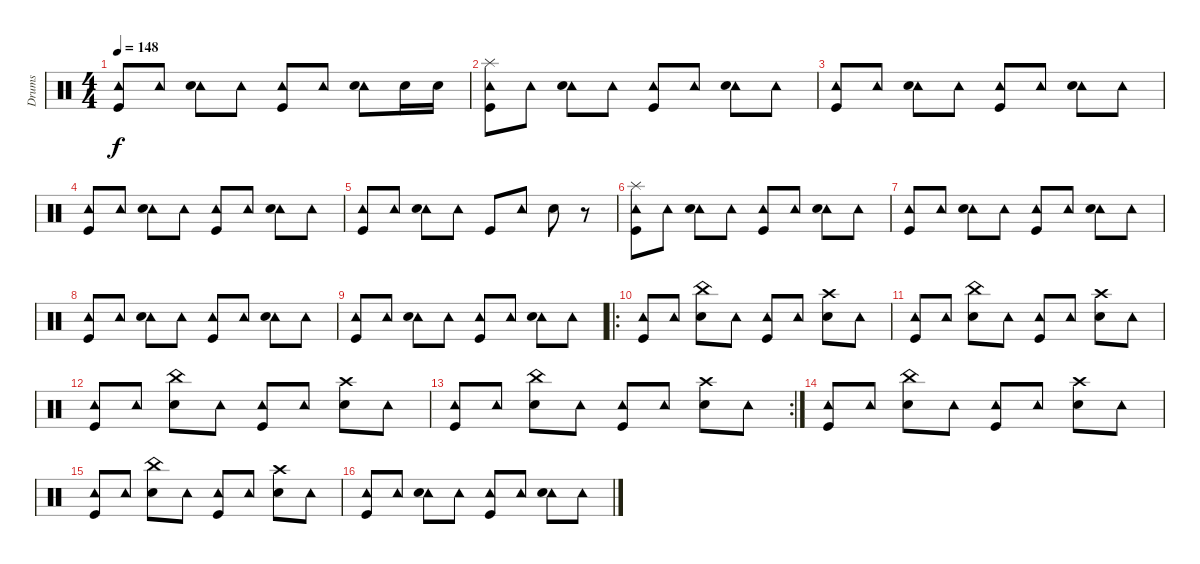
\track ("Drums" "Drums") {instrument percussion}
\staff {score}
\articulation defaults
\ts (4 4)
\tempo 148
\clef neutral
\ks c
("Tambourine (hit)" "Kick (hit)").8{dy f} "Tambourine (hit)".8 ("Tambourine (hit)" "Snare (hit) 2").8 "Tambourine (hit)".8 ("Tambourine (hit)" "Kick (hit)").8 "Tambourine (hit)".8 ("Tambourine (hit)" "Snare (hit) 2").8 "Snare (hit) 2".16 "Snare (hit) 2".16 |
("Tambourine (hit)" "Kick (hit)" "Splash (hit)").8 "Tambourine (hit)".8 ("Tambourine (hit)" "Snare (hit) 2").8 "Tambourine (hit)".8 ("Tambourine (hit)" "Kick (hit)").8 "Tambourine (hit)".8 ("Tambourine (hit)" "Snare (hit) 2").8 "Tambourine (hit)".8 |
("Tambourine (hit)" "Kick (hit)").8 "Tambourine (hit)".8 ("Tambourine (hit)" "Snare (hit) 2").8 "Tambourine (hit)".8 ("Tambourine (hit)" "Kick (hit)").8 "Tambourine (hit)".8 ("Tambourine (hit)" "Snare (hit) 2").8 "Tambourine (hit)".8 |
("Tambourine (hit)" "Kick (hit)").8 "Tambourine (hit)".8 ("Tambourine (hit)" "Snare (hit) 2").8 "Tambourine (hit)".8 ("Tambourine (hit)" "Kick (hit)").8 "Tambourine (hit)".8 ("Tambourine (hit)" "Snare (hit) 2").8 "Tambourine (hit)".8 |
("Tambourine (hit)" "Kick (hit)").8 "Tambourine (hit)".8 ("Tambourine (hit)" "Snare (hit) 2").8 "Tambourine (hit)".8 "Kick (hit)".8 "Tambourine (hit)".8 "Snare (hit) 2".8 r.8 |
("Tambourine (hit)" "Kick (hit)" "Splash (hit)").8 "Tambourine (hit)".8 ("Tambourine (hit)" "Snare (hit) 2").8 "Tambourine (hit)".8 ("Tambourine (hit)" "Kick (hit)").8 "Tambourine (hit)".8 ("Tambourine (hit)" "Snare (hit) 2").8 "Tambourine (hit)".8 |
("Tambourine (hit)" "Kick (hit)").8 "Tambourine (hit)".8 ("Tambourine (hit)" "Snare (hit) 2").8 "Tambourine (hit)".8 ("Tambourine (hit)" "Kick (hit)").8 "Tambourine (hit)".8 ("Tambourine (hit)" "Snare (hit) 2").8 "Tambourine (hit)".8 |
("Tambourine (hit)" "Kick (hit)").8 "Tambourine (hit)".8 ("Tambourine (hit)" "Snare (hit) 2").8 "Tambourine (hit)".8 ("Tambourine (hit)" "Kick (hit)").8 "Tambourine (hit)".8 ("Tambourine (hit)" "Snare (hit) 2").8 "Tambourine (hit)".8 |
("Tambourine (hit)" "Kick (hit)").8 "Tambourine (hit)".8 ("Tambourine (hit)" "Snare (hit) 2").8 "Tambourine (hit)".8 ("Tambourine (hit)" "Kick (hit)").8 "Tambourine (hit)".8 ("Tambourine (hit)" "Snare (hit) 2").8 "Tambourine (hit)".8 |
\ro
("Tambourine (hit)" "Kick (hit)").8 "Tambourine (hit)".8 ("Snare (hit) 2" "China (hit)").8 "Tambourine (hit)".8 ("Tambourine (hit)" "Kick (hit)").8 "Tambourine (hit)".8 ("Snare (hit) 2" "Crash high (hit)").8 "Tambourine (hit)".8 |
("Tambourine (hit)" "Kick (hit)").8 "Tambourine (hit)".8 ("Snare (hit) 2" "China (hit)").8 "Tambourine (hit)".8 ("Tambourine (hit)" "Kick (hit)").8 "Tambourine (hit)".8 ("Snare (hit) 2" "Crash high (hit)").8 "Tambourine (hit)".8 |
("Tambourine (hit)" "Kick (hit)").8 "Tambourine (hit)".8 ("Snare (hit) 2" "China (hit)").8 "Tambourine (hit)".8 ("Tambourine (hit)" "Kick (hit)").8 "Tambourine (hit)".8 ("Snare (hit) 2" "Crash high (hit)").8 "Tambourine (hit)".8 |
\rc 2
("Tambourine (hit)" "Kick (hit)").8 "Tambourine (hit)".8 ("Snare (hit) 2" "China (hit)").8 "Tambourine (hit)".8 ("Tambourine (hit)" "Kick (hit)").8 "Tambourine (hit)".8 ("Snare (hit) 2" "Crash high (hit)").8 "Tambourine (hit)".8 |
("Tambourine (hit)" "Kick (hit)").8 "Tambourine (hit)".8 ("Snare (hit) 2" "China (hit)").8 "Tambourine (hit)".8 ("Tambourine (hit)" "Kick (hit)").8 "Tambourine (hit)".8 ("Snare (hit) 2" "Crash high (hit)").8 "Tambourine (hit)".8 |
("Tambourine (hit)" "Kick (hit)").8 "Tambourine (hit)".8 ("Snare (hit) 2" "China (hit)").8 "Tambourine (hit)".8 ("Tambourine (hit)" "Kick (hit)").8 "Tambourine (hit)".8 ("Snare (hit) 2" "Crash high (hit)").8 "Tambourine (hit)".8 |
("Tambourine (hit)" "Kick (hit)").8 "Tambourine (hit)".8 ("Tambourine (hit)" "Snare (hit) 2").8 "Tambourine (hit)".8 ("Tambourine (hit)" "Kick (hit)").8 "Tambourine (hit)".8 ("Tambourine (hit)" "Snare (hit) 2").8 "Tambourine (hit)".8
